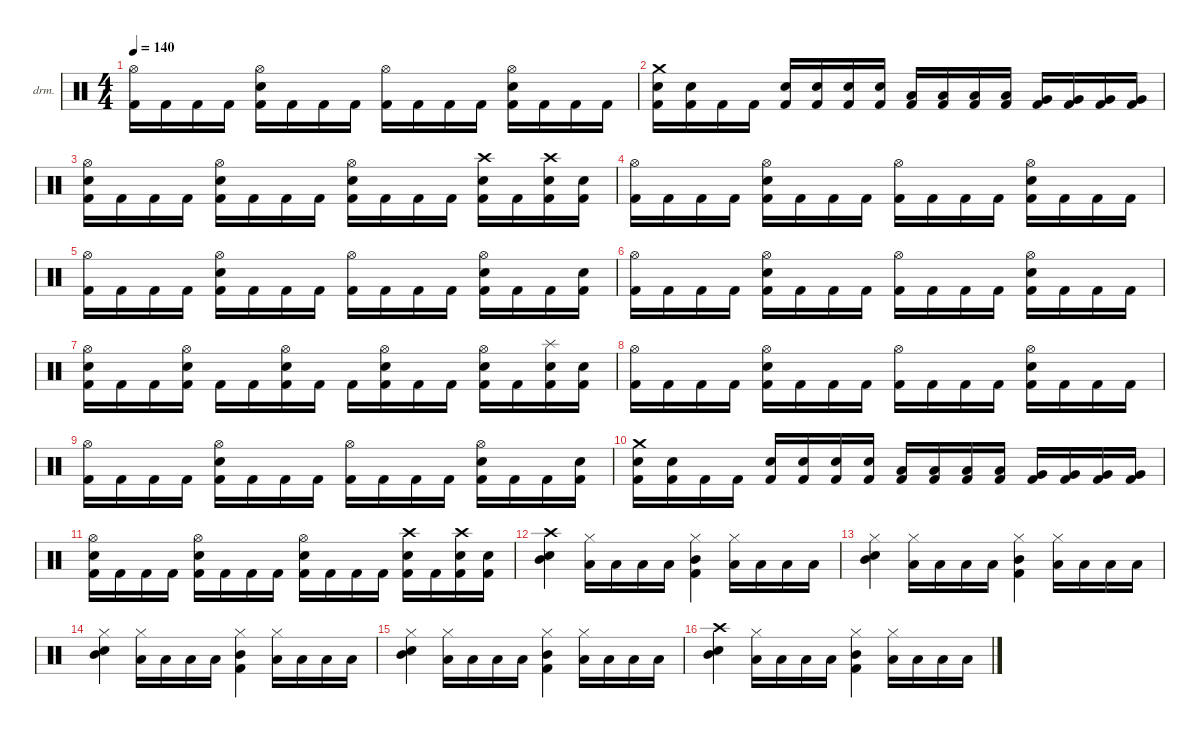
\defaultSystemsLayout 4
\hideDynamics
\bracketExtendMode nobrackets
\firstSystemTrackNameOrientation horizontal
\otherSystemsTrackNameOrientation horizontal
\track ("Drumkit" "drm.") {instrument percussion}
\staff {score}
\articulation defaults
\ts (4 4)
\tempo 140
\clef neutral
\ks c
("Hi-Hat (open)" "Kick (hit) 2").16{dy ff} "Kick (hit) 2".16 "Kick (hit) 2".16 "Kick (hit) 2".16 ("Hi-Hat (open)" "Snare (hit) 2" "Kick (hit) 2").16 "Kick (hit) 2".16 "Kick (hit) 2".16 "Kick (hit) 2".16 ("Hi-Hat (open)" "Kick (hit) 2").16 "Kick (hit) 2".16 "Kick (hit) 2".16 "Kick (hit) 2".16 ("Hi-Hat (open)" "Snare (hit) 2" "Kick (hit) 2").16 "Kick (hit) 2".16 "Kick (hit) 2".16 "Kick (hit) 2".16 |
("Crash medium (hit)" "Snare (hit) 2" "Kick (hit) 2").16{dy mf} ("Snare (hit) 2" "Kick (hit) 2").16 "Kick (hit) 2".16 "Kick (hit) 2".16 ("Snare (hit) 2" "Kick (hit) 2").16 ("Snare (hit) 2" "Kick (hit) 2").16 ("Snare (hit) 2" "Kick (hit) 2").16 ("Snare (hit) 2" "Kick (hit) 2").16 ("Low Tom (hit)" "Kick (hit) 2").16 ("Low Tom (hit)" "Kick (hit) 2").16 ("Low Tom (hit)" "Kick (hit) 2").16 ("Low Tom (hit)" "Kick (hit) 2").16 ("Very Low Tom (hit)" "Kick (hit) 2").16 ("Very Low Tom (hit)" "Kick (hit) 2").16 ("Very Low Tom (hit)" "Kick (hit) 2").16 ("Very Low Tom (hit)" "Kick (hit) 2").16 |
("Hi-Hat (open)" "Snare (hit) 2" "Kick (hit) 2").16 "Kick (hit) 2".16 "Kick (hit) 2".16 "Kick (hit) 2".16 ("Hi-Hat (open)" "Snare (hit) 2" "Kick (hit) 2").16 "Kick (hit) 2".16 "Kick (hit) 2".16 "Kick (hit) 2".16 ("Hi-Hat (open)" "Snare (hit) 2" "Kick (hit) 2").16 "Kick (hit) 2".16 "Kick (hit) 2".16 "Kick (hit) 2".16 ("Crash high (hit)" "Snare (hit) 2" "Kick (hit) 2").16 "Kick (hit) 2".16 ("Crash high (hit)" "Snare (hit) 2" "Kick (hit) 2").16 ("Snare (hit) 2" "Kick (hit) 2").16 |
("Hi-Hat (open)" "Kick (hit) 2").16{dy ff} "Kick (hit) 2".16 "Kick (hit) 2".16 "Kick (hit) 2".16 ("Hi-Hat (open)" "Snare (hit) 2" "Kick (hit) 2").16 "Kick (hit) 2".16 "Kick (hit) 2".16 "Kick (hit) 2".16 ("Hi-Hat (open)" "Kick (hit) 2").16 "Kick (hit) 2".16 "Kick (hit) 2".16 "Kick (hit) 2".16 ("Hi-Hat (open)" "Snare (hit) 2" "Kick (hit) 2").16 "Kick (hit) 2".16 "Kick (hit) 2".16 "Kick (hit) 2".16 |
("Hi-Hat (open)" "Kick (hit) 2").16 "Kick (hit) 2".16 "Kick (hit) 2".16 "Kick (hit) 2".16 ("Hi-Hat (open)" "Snare (hit) 2" "Kick (hit) 2").16 "Kick (hit) 2".16 "Kick (hit) 2".16 "Kick (hit) 2".16 ("Hi-Hat (open)" "Kick (hit) 2").16 "Kick (hit) 2".16 "Kick (hit) 2".16 "Kick (hit) 2".16 ("Hi-Hat (open)" "Snare (hit) 2" "Kick (hit) 2").16 "Kick (hit) 2".16 "Kick (hit) 2".16 ("Snare (hit) 2" "Kick (hit) 2").16 |
("Hi-Hat (open)" "Kick (hit) 2").16 "Kick (hit) 2".16 "Kick (hit) 2".16 "Kick (hit) 2".16 ("Hi-Hat (open)" "Snare (hit) 2" "Kick (hit) 2").16 "Kick (hit) 2".16 "Kick (hit) 2".16 "Kick (hit) 2".16 ("Hi-Hat (open)" "Kick (hit) 2").16 "Kick (hit) 2".16 "Kick (hit) 2".16 "Kick (hit) 2".16 ("Hi-Hat (open)" "Snare (hit) 2" "Kick (hit) 2").16 "Kick (hit) 2".16 "Kick (hit) 2".16 "Kick (hit) 2".16 |
("Hi-Hat (open)" "Snare (hit) 2" "Kick (hit) 2").16 "Kick (hit) 2".16 "Kick (hit) 2".16 ("Hi-Hat (open)" "Snare (hit) 2" "Kick (hit) 2").16 "Kick (hit) 2".16 "Kick (hit) 2".16 ("Hi-Hat (open)" "Snare (hit) 2" "Kick (hit) 2").16 "Kick (hit) 2".16 "Kick (hit) 2".16 ("Hi-Hat (open)" "Snare (hit) 2" "Kick (hit) 2").16 "Kick (hit) 2".16 "Kick (hit) 2".16 ("Hi-Hat (open)" "Snare (hit) 2" "Kick (hit) 2").16 "Kick (hit) 2".16 ("Splash (hit)" "Snare (hit) 2" "Kick (hit) 2").16 ("Snare (hit) 2" "Kick (hit) 2").16 |
("Hi-Hat (open)" "Kick (hit) 2").16 "Kick (hit) 2".16 "Kick (hit) 2".16 "Kick (hit) 2".16 ("Hi-Hat (open)" "Snare (hit) 2" "Kick (hit) 2").16 "Kick (hit) 2".16 "Kick (hit) 2".16 "Kick (hit) 2".16 ("Hi-Hat (open)" "Kick (hit) 2").16 "Kick (hit) 2".16 "Kick (hit) 2".16 "Kick (hit) 2".16 ("Hi-Hat (open)" "Snare (hit) 2" "Kick (hit) 2").16 "Kick (hit) 2".16 "Kick (hit) 2".16 "Kick (hit) 2".16 |
("Hi-Hat (open)" "Kick (hit) 2").16 "Kick (hit) 2".16 "Kick (hit) 2".16 "Kick (hit) 2".16 ("Hi-Hat (open)" "Snare (hit) 2" "Kick (hit) 2").16 "Kick (hit) 2".16 "Kick (hit) 2".16 "Kick (hit) 2".16 ("Hi-Hat (open)" "Kick (hit) 2").16 "Kick (hit) 2".16 "Kick (hit) 2".16 "Kick (hit) 2".16 ("Hi-Hat (open)" "Snare (hit) 2" "Kick (hit) 2").16 "Kick (hit) 2".16 "Kick (hit) 2".16 ("Snare (hit) 2" "Kick (hit) 2").16 |
("Crash medium (hit)" "Snare (hit) 2" "Kick (hit) 2").16{dy mf} ("Snare (hit) 2" "Kick (hit) 2").16 "Kick (hit) 2".16 "Kick (hit) 2".16 ("Snare (hit) 2" "Kick (hit) 2").16 ("Snare (hit) 2" "Kick (hit) 2").16 ("Snare (hit) 2" "Kick (hit) 2").16 ("Snare (hit) 2" "Kick (hit) 2").16 ("Low Tom (hit)" "Kick (hit) 2").16 ("Low Tom (hit)" "Kick (hit) 2").16 ("Low Tom (hit)" "Kick (hit) 2").16 ("Low Tom (hit)" "Kick (hit) 2").16 ("Very Low Tom (hit)" "Kick (hit) 2").16 ("Very Low Tom (hit)" "Kick (hit) 2").16 ("Very Low Tom (hit)" "Kick (hit) 2").16 ("Very Low Tom (hit)" "Kick (hit) 2").16 |
("Hi-Hat (open)" "Snare (hit) 2" "Kick (hit) 2").16 "Kick (hit) 2".16 "Kick (hit) 2".16 "Kick (hit) 2".16 ("Hi-Hat (open)" "Snare (hit) 2" "Kick (hit) 2").16 "Kick (hit) 2".16 "Kick (hit) 2".16 "Kick (hit) 2".16 ("Hi-Hat (open)" "Snare (hit) 2" "Kick (hit) 2").16 "Kick (hit) 2".16 "Kick (hit) 2".16 "Kick (hit) 2".16 ("Crash high (hit)" "Snare (hit) 2" "Kick (hit) 2").16 "Kick (hit) 2".16 ("Crash high (hit)" "Snare (hit) 2" "Kick (hit) 2").16 ("Snare (hit) 2" "Kick (hit) 2").16 |
("Snare (hit) 2" "Mid Tom (hit)" "Crash high (hit)").4{dy fff} ("Low Tom (hit)" "Hi-Hat (closed)").16 "Low Tom (hit)".16 "Low Tom (hit)".16 "Low Tom (hit)".16 ("Mid Tom (hit)" "Kick (hit) 2" "Hi-Hat (closed)").4 ("Low Tom (hit)" "Hi-Hat (closed)").16 "Low Tom (hit)".16 "Low Tom (hit)".16 "Low Tom (hit)".16 |
("Snare (hit) 2" "Mid Tom (hit)" "Hi-Hat (closed)").4 ("Low Tom (hit)" "Hi-Hat (closed)").16 "Low Tom (hit)".16 "Low Tom (hit)".16 "Low Tom (hit)".16 ("Mid Tom (hit)" "Kick (hit) 2" "Hi-Hat (closed)").4 ("Low Tom (hit)" "Hi-Hat (closed)").16 "Low Tom (hit)".16 "Low Tom (hit)".16 "Low Tom (hit)".16 |
("Snare (hit) 2" "Mid Tom (hit)" "Hi-Hat (closed)").4 ("Low Tom (hit)" "Hi-Hat (closed)").16 "Low Tom (hit)".16 "Low Tom (hit)".16 "Low Tom (hit)".16 ("Mid Tom (hit)" "Kick (hit) 2" "Hi-Hat (closed)").4 ("Low Tom (hit)" "Hi-Hat (closed)").16 "Low Tom (hit)".16 "Low Tom (hit)".16 "Low Tom (hit)".16 |
("Snare (hit) 2" "Mid Tom (hit)" "Hi-Hat (closed)").4 ("Low Tom (hit)" "Hi-Hat (closed)").16 "Low Tom (hit)".16 "Low Tom (hit)".16 "Low Tom (hit)".16 ("Mid Tom (hit)" "Kick (hit) 2" "Hi-Hat (closed)").4 ("Low Tom (hit)" "Hi-Hat (closed)").16 "Low Tom (hit)".16 "Low Tom (hit)".16 "Low Tom (hit)".16 |
("Snare (hit) 2" "Mid Tom (hit)" "Crash high (hit)").4 ("Low Tom (hit)" "Hi-Hat (closed)").16 "Low Tom (hit)".16 "Low Tom (hit)".16 "Low Tom (hit)".16 ("Mid Tom (hit)" "Kick (hit) 2" "Hi-Hat (closed)").4 ("Low Tom (hit)" "Hi-Hat (closed)").16 "Low Tom (hit)".16 "Low Tom (hit)".16 "Low Tom (hit)".16
